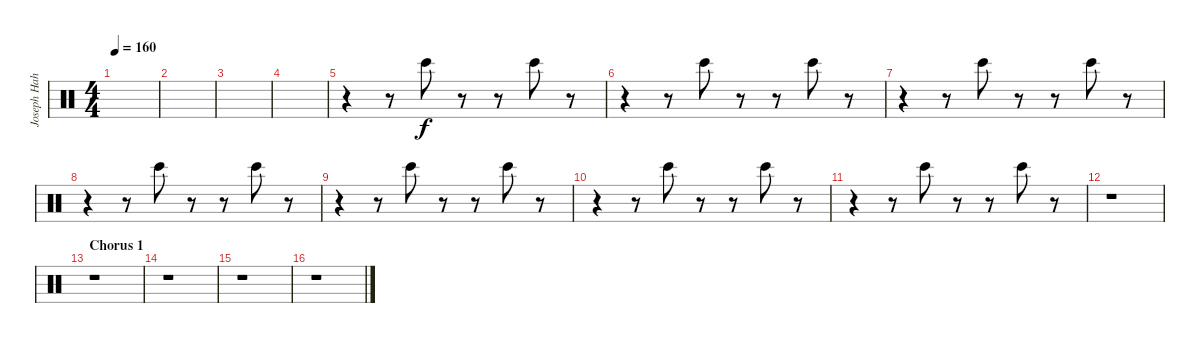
\track ("Joseph Hahn (Sampler 3)" "Joseph Hah") {instrument percussion}
\staff {score}
\articulation defaults
\ts (4 4)
\tempo 160
\clef neutral
\ks c
|
|
|
|
r.4 r.8 "Bongo High (hit)".8 r.8 r.8 "Bongo High (hit)".8 r.8 |
r.4 r.8 "Bongo High (hit)".8 r.8 r.8 "Bongo High (hit)".8 r.8 |
r.4 r.8 "Bongo High (hit)".8 r.8 r.8 "Bongo High (hit)".8 r.8 |
r.4 r.8 "Bongo High (hit)".8 r.8 r.8 "Bongo High (hit)".8 r.8 |
r.4 r.8 "Bongo High (hit)".8 r.8 r.8 "Bongo High (hit)".8 r.8 |
r.4 r.8 "Bongo High (hit)".8 r.8 r.8 "Bongo High (hit)".8 r.8 |
r.4 r.8 "Bongo High (hit)".8 r.8 r.8 "Bongo High (hit)".8 r.8 |
r.1 |
\section ("" "Chorus 1")
r.1 |
r.1 |
r.1 |
r.1
